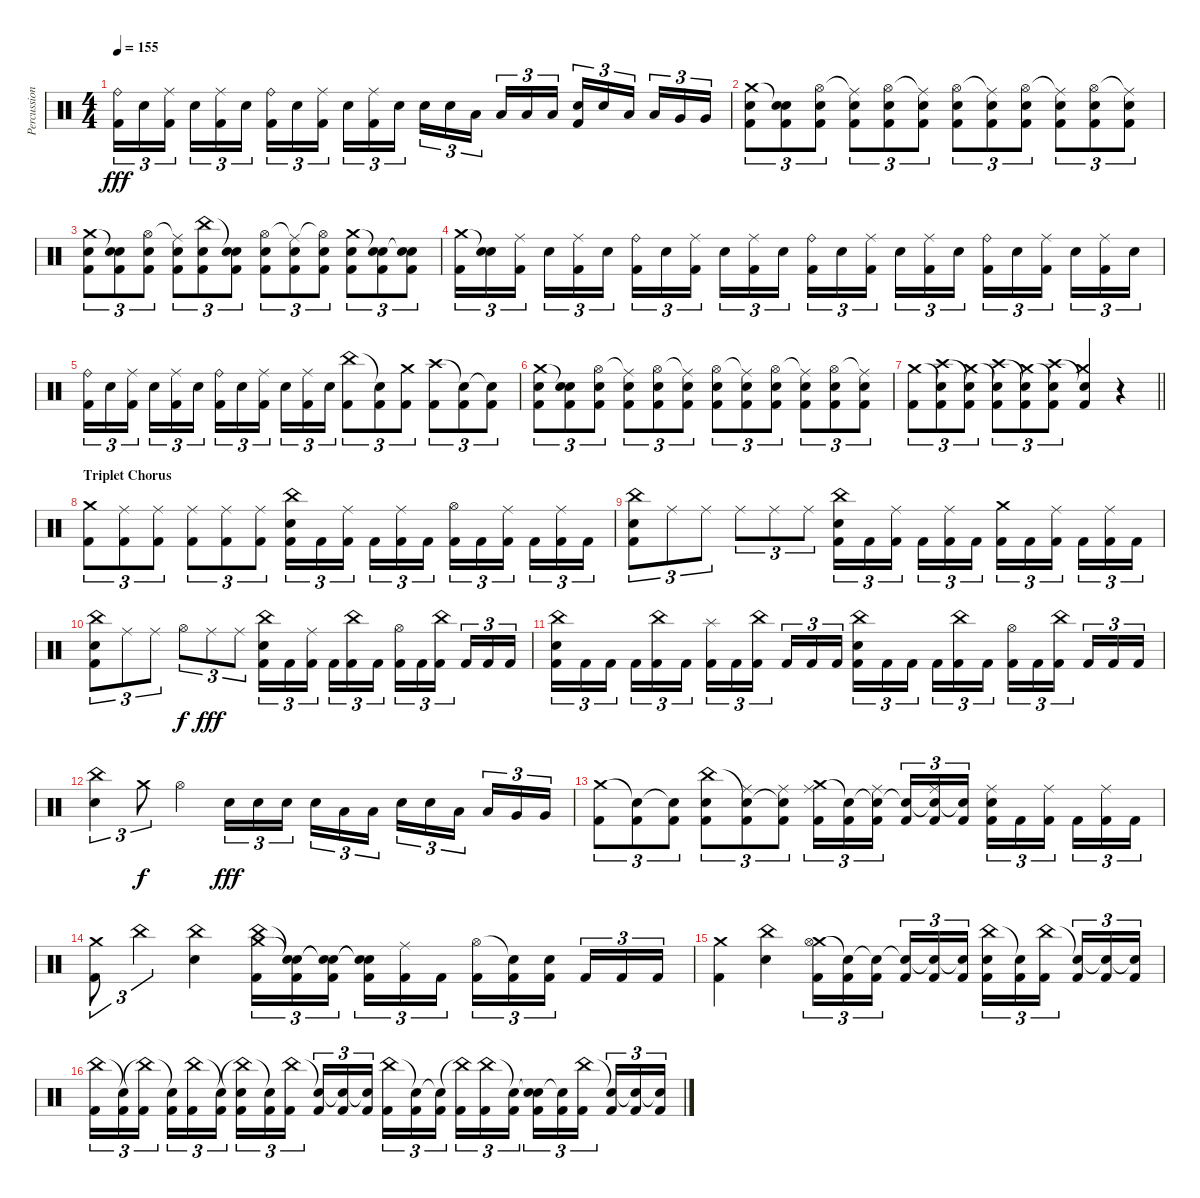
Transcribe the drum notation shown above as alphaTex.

\track ("Percussion" "Percussion") {instrument percussion}
\staff {score}
\articulation defaults
\ts (4 4)
\tempo 155
\clef neutral
\ks c
("Ride (bell)" "Kick (hit) 2").16{tu (3 2) dy fff} "Electric Snare (hit)".16{tu (3 2)} ("Ride (middle)" "Kick (hit) 2").16{tu (3 2) beam splitsecondary} "Electric Snare (hit)".16{tu (3 2)} ("Ride (middle)" "Kick (hit) 2").16{tu (3 2)} "Electric Snare (hit)".16{tu (3 2)} ("Ride (bell)" "Kick (hit) 2").16{tu (3 2)} "Electric Snare (hit)".16{tu (3 2)} ("Ride (middle)" "Kick (hit) 2").16{tu (3 2) beam splitsecondary} "Electric Snare (hit)".16{tu (3 2)} ("Ride (middle)" "Kick (hit) 2").16{tu (3 2)} "Electric Snare (hit)".16{tu (3 2)} "Electric Snare (hit)".16{tu (3 2)} "Electric Snare (hit)".16{tu (3 2)} "Low Tom (hit)".16{tu (3 2) beam splitsecondary} "Low Tom (hit)".16{tu (3 2)} "Low Tom (hit)".16{tu (3 2)} "Low Tom (hit)".16{tu (3 2)} ("Electric Snare (hit)" "Kick (hit) 2").16{tu (3 2)} "Electric Snare (hit)".16{tu (3 2)} "Low Tom (hit)".16{tu (3 2) beam splitsecondary} "Low Tom (hit)".16{tu (3 2)} "Very Low Tom (hit)".16{tu (3 2)} "Very Low Tom (hit)".16{tu (3 2)} |
("Crash medium (hit)" "Electric Snare (hit)" "Kick (hit) 2").8{tu (3 2)} ("Snare (hit)"{t} "Electric Snare (hit)" "Kick (hit) 2").8{tu (3 2)} ("Hi-Hat (open)" "Electric Snare (hit)" "Kick (hit) 2").8{tu (3 2)} ("Ride (middle)"{t} "Electric Snare (hit)" "Kick (hit) 2").8{tu (3 2)} ("Hi-Hat (open)" "Electric Snare (hit)" "Kick (hit) 2").8{tu (3 2)} ("Ride (middle)"{t} "Electric Snare (hit)" "Kick (hit) 2").8{tu (3 2)} ("Hi-Hat (open)" "Electric Snare (hit)" "Kick (hit) 2").8{tu (3 2)} ("Ride (middle)"{t} "Electric Snare (hit)" "Kick (hit) 2").8{tu (3 2)} ("Hi-Hat (open)" "Electric Snare (hit)" "Kick (hit) 2").8{tu (3 2)} ("Ride (middle)"{t} "Electric Snare (hit)" "Kick (hit) 2").8{tu (3 2)} ("Hi-Hat (open)" "Electric Snare (hit)" "Kick (hit) 2").8{tu (3 2)} ("Ride (middle)"{t} "Electric Snare (hit)" "Kick (hit) 2").8{tu (3 2)} |
("Crash medium (hit)" "Electric Snare (hit)" "Kick (hit) 2").8{tu (3 2)} ("Snare (hit)"{t} "Electric Snare (hit)" "Kick (hit) 2").8{tu (3 2)} ("Hi-Hat (open)" "Electric Snare (hit)" "Kick (hit) 2").8{tu (3 2)} ("Ride (middle)"{t} "Electric Snare (hit)" "Kick (hit) 2").8{tu (3 2)} ("China (hit)" "Electric Snare (hit)" "Kick (hit) 2").8{tu (3 2)} ("Snare (hit)"{t} "Electric Snare (hit)" "Kick (hit) 2").8{tu (3 2)} ("Hi-Hat (open)" "Electric Snare (hit)" "Kick (hit) 2").8{tu (3 2)} ("Ride (middle)"{t} "Electric Snare (hit)" "Kick (hit) 2").8{tu (3 2)} ("Hi-Hat (open)"{t} "Electric Snare (hit)" "Kick (hit) 2").8{tu (3 2)} ("Crash medium (hit)" "Electric Snare (hit)" "Kick (hit) 2").8{tu (3 2)} ("Snare (hit)"{t} "Electric Snare (hit)" "Kick (hit) 2").8{tu (3 2)} ("Snare (hit)"{t} "Electric Snare (hit)" "Kick (hit) 2").8{tu (3 2)} |
("Crash medium (hit)" "Kick (hit) 2").16{tu (3 2)} ("Snare (hit)"{t} "Electric Snare (hit)").16{tu (3 2)} ("Ride (middle)" "Kick (hit) 2").16{tu (3 2) beam splitsecondary} "Electric Snare (hit)".16{tu (3 2)} ("Ride (middle)" "Kick (hit) 2").16{tu (3 2)} "Electric Snare (hit)".16{tu (3 2)} ("Ride (bell)" "Kick (hit) 2").16{tu (3 2)} "Electric Snare (hit)".16{tu (3 2)} ("Ride (middle)" "Kick (hit) 2").16{tu (3 2) beam splitsecondary} "Electric Snare (hit)".16{tu (3 2)} ("Ride (middle)" "Kick (hit) 2").16{tu (3 2)} "Electric Snare (hit)".16{tu (3 2)} ("Ride (bell)" "Kick (hit) 2").16{tu (3 2)} "Electric Snare (hit)".16{tu (3 2)} ("Ride (middle)" "Kick (hit) 2").16{tu (3 2) beam splitsecondary} "Electric Snare (hit)".16{tu (3 2)} ("Ride (middle)" "Kick (hit) 2").16{tu (3 2)} "Electric Snare (hit)".16{tu (3 2)} ("Ride (bell)" "Kick (hit) 2").16{tu (3 2)} "Electric Snare (hit)".16{tu (3 2)} ("Ride (middle)" "Kick (hit) 2").16{tu (3 2) beam splitsecondary} "Electric Snare (hit)".16{tu (3 2)} ("Ride (middle)" "Kick (hit) 2").16{tu (3 2)} "Electric Snare (hit)".16{tu (3 2)} |
("Ride (bell)" "Kick (hit) 2").16{tu (3 2)} "Electric Snare (hit)".16{tu (3 2)} ("Ride (middle)" "Kick (hit) 2").16{tu (3 2) beam splitsecondary} "Electric Snare (hit)".16{tu (3 2)} ("Ride (middle)" "Kick (hit) 2").16{tu (3 2)} "Electric Snare (hit)".16{tu (3 2)} ("Ride (bell)" "Kick (hit) 2").16{tu (3 2)} "Electric Snare (hit)".16{tu (3 2)} ("Ride (middle)" "Kick (hit) 2").16{tu (3 2) beam splitsecondary} "Electric Snare (hit)".16{tu (3 2)} ("Ride (middle)" "Kick (hit) 2").16{tu (3 2)} "Electric Snare (hit)".16{tu (3 2)} ("China (hit)" "Kick (hit) 2").8{tu (3 2)} ("Snare (hit)"{t} "Kick (hit) 2").8{tu (3 2)} ("Crash medium (hit)" "Kick (hit) 2").8{tu (3 2)} ("Crash high (hit)" "Kick (hit) 2").8{tu (3 2)} ("Snare (hit)"{t} "Kick (hit) 2").8{tu (3 2)} ("Snare (hit)"{t} "Kick (hit) 2").8{tu (3 2)} |
("Crash medium (hit)" "Electric Snare (hit)" "Kick (hit) 2").8{tu (3 2)} ("Snare (hit)"{t} "Electric Snare (hit)" "Kick (hit) 2").8{tu (3 2)} ("Hi-Hat (open)" "Electric Snare (hit)" "Kick (hit) 2").8{tu (3 2)} ("Ride (middle)"{t} "Electric Snare (hit)" "Kick (hit) 2").8{tu (3 2)} ("Hi-Hat (open)" "Electric Snare (hit)" "Kick (hit) 2").8{tu (3 2)} ("Ride (middle)"{t} "Electric Snare (hit)" "Kick (hit) 2").8{tu (3 2)} ("Hi-Hat (open)" "Electric Snare (hit)" "Kick (hit) 2").8{tu (3 2)} ("Ride (middle)"{t} "Electric Snare (hit)" "Kick (hit) 2").8{tu (3 2)} ("Hi-Hat (open)" "Electric Snare (hit)" "Kick (hit) 2").8{tu (3 2)} ("Ride (middle)"{t} "Electric Snare (hit)" "Kick (hit) 2").8{tu (3 2)} ("Hi-Hat (open)" "Electric Snare (hit)" "Kick (hit) 2").8{tu (3 2)} ("Ride (middle)"{t} "Electric Snare (hit)" "Kick (hit) 2").8{tu (3 2)} |
\barLineRight lightlight
("Crash medium (hit)" "Kick (hit) 2").8{tu (3 2)} ("Snare (hit)"{t} "Crash high (hit)" "Kick (hit) 2").8{tu (3 2)} ("Crash medium (hit)" "Snare (hit)"{t} "Kick (hit) 2").8{tu (3 2)} ("Snare (hit)"{t} "Crash high (hit)" "Kick (hit) 2").8{tu (3 2)} ("Crash medium (hit)" "Snare (hit)"{t} "Kick (hit) 2").8{tu (3 2)} ("Snare (hit)"{t} "Crash high (hit)" "Kick (hit) 2").8{tu (3 2)} ("Crash medium (hit)" "Snare (hit)"{t} "Kick (hit) 2").4 r.4 |
\section ("" "Triplet Chorus")
("Crash medium (hit)" "Kick (hit) 2").8{tu (3 2)} ("Ride (middle)" "Kick (hit) 2").8{tu (3 2)} ("Ride (middle)" "Kick (hit) 2").8{tu (3 2)} ("Ride (middle)" "Kick (hit) 2").8{tu (3 2)} ("Ride (middle)" "Kick (hit) 2").8{tu (3 2)} ("Ride (middle)" "Kick (hit) 2").8{tu (3 2)} ("China (hit)" "Electric Snare (hit)" "Kick (hit) 2").16{tu (3 2)} "Kick (hit) 2".16{tu (3 2)} ("Ride (middle)" "Kick (hit) 2").16{tu (3 2) beam splitsecondary} "Kick (hit) 2".16{tu (3 2)} ("Ride (middle)" "Kick (hit) 2").16{tu (3 2)} "Kick (hit) 2".16{tu (3 2)} ("Hi-Hat (open)" "Kick (hit) 2").16{tu (3 2)} "Kick (hit) 2".16{tu (3 2)} ("Ride (middle)" "Kick (hit) 2").16{tu (3 2) beam splitsecondary} "Kick (hit) 2".16{tu (3 2)} ("Ride (middle)" "Kick (hit) 2").16{tu (3 2)} "Kick (hit) 2".16{tu (3 2)} |
("China (hit)" "Electric Snare (hit)" "Kick (hit) 2").8{tu (3 2)} "Ride (middle)".8{tu (3 2)} "Ride (middle)".8{tu (3 2)} "Ride (middle)".8{tu (3 2)} "Ride (middle)".8{tu (3 2)} "Ride (middle)".8{tu (3 2)} ("China (hit)" "Electric Snare (hit)" "Kick (hit) 2").16{tu (3 2)} "Kick (hit) 2".16{tu (3 2)} ("Ride (middle)" "Kick (hit) 2").16{tu (3 2) beam splitsecondary} "Kick (hit) 2".16{tu (3 2)} ("Ride (middle)" "Kick (hit) 2").16{tu (3 2)} "Kick (hit) 2".16{tu (3 2)} ("Crash medium (hit)" "Kick (hit) 2").16{tu (3 2)} "Kick (hit) 2".16{tu (3 2)} ("Ride (middle)" "Kick (hit) 2").16{tu (3 2) beam splitsecondary} "Kick (hit) 2".16{tu (3 2)} ("Ride (middle)" "Kick (hit) 2").16{tu (3 2)} "Kick (hit) 2".16{tu (3 2)} |
("China (hit)" "Electric Snare (hit)" "Kick (hit) 2").8{tu (3 2)} "Ride (middle)".8{tu (3 2)} "Ride (middle)".8{tu (3 2)} "Hi-Hat (open)".8{tu (3 2) dy f} "Ride (middle)".8{tu (3 2) dy fff} "Ride (middle)".8{tu (3 2)} ("China (hit)" "Electric Snare (hit)" "Kick (hit) 2").16{tu (3 2)} "Kick (hit) 2".16{tu (3 2)} ("Ride (middle)" "Kick (hit) 2").16{tu (3 2) beam splitsecondary} "Kick (hit) 2".16{tu (3 2)} ("China (hit)" "Kick (hit) 2").16{tu (3 2)} "Kick (hit) 2".16{tu (3 2)} ("Hi-Hat (open)" "Kick (hit) 2").16{tu (3 2)} "Kick (hit) 2".16{tu (3 2)} ("China (hit)" "Kick (hit) 2").16{tu (3 2) beam splitsecondary} "Kick (hit) 2".16{tu (3 2)} "Kick (hit) 2".16{tu (3 2)} "Kick (hit) 2".16{tu (3 2)} |
("China (hit)" "Electric Snare (hit)" "Kick (hit) 2").16{tu (3 2)} "Kick (hit) 2".16{tu (3 2)} "Kick (hit) 2".16{tu (3 2) beam splitsecondary} "Kick (hit) 2".16{tu (3 2)} ("China (hit)" "Kick (hit) 2").16{tu (3 2)} "Kick (hit) 2".16{tu (3 2)} ("Splash (hit)" "Kick (hit) 2").16{tu (3 2)} "Kick (hit) 2".16{tu (3 2)} ("China (hit)" "Kick (hit) 2").16{tu (3 2) beam splitsecondary} "Kick (hit) 2".16{tu (3 2)} "Kick (hit) 2".16{tu (3 2)} "Kick (hit) 2".16{tu (3 2)} ("China (hit)" "Electric Snare (hit)" "Kick (hit) 2").16{tu (3 2)} "Kick (hit) 2".16{tu (3 2)} "Kick (hit) 2".16{tu (3 2) beam splitsecondary} "Kick (hit) 2".16{tu (3 2)} ("China (hit)" "Kick (hit) 2").16{tu (3 2)} "Kick (hit) 2".16{tu (3 2)} ("Hi-Hat (open)" "Kick (hit) 2").16{tu (3 2)} "Kick (hit) 2".16{tu (3 2)} ("China (hit)" "Kick (hit) 2").16{tu (3 2) beam splitsecondary} "Kick (hit) 2".16{tu (3 2)} "Kick (hit) 2".16{tu (3 2)} "Kick (hit) 2".16{tu (3 2)} |
("China (hit)" "Electric Snare (hit)").4{tu (3 2)} "Crash medium (hit)".8{tu (3 2) dy f} "Hi-Hat (open)".4 "Electric Snare (hit)".16{tu (3 2) dy fff} "Electric Snare (hit)".16{tu (3 2)} "Electric Snare (hit)".16{tu (3 2) beam splitsecondary} "Electric Snare (hit)".16{tu (3 2)} "Low Tom (hit)".16{tu (3 2)} "Low Tom (hit)".16{tu (3 2)} "Electric Snare (hit)".16{tu (3 2)} "Electric Snare (hit)".16{tu (3 2)} "Low Tom (hit)".16{tu (3 2) beam splitsecondary} "Low Tom (hit)".16{tu (3 2)} "Very Low Tom (hit)".16{tu (3 2)} "Very Low Tom (hit)".16{tu (3 2)} |
("Crash medium (hit)" "Kick (hit) 2").8{tu (3 2)} ("Snare (hit)"{t} "Kick (hit) 2").8{tu (3 2)} ("Snare (hit)"{t} "Kick (hit) 2").8{tu (3 2)} ("China (hit)" "Electric Snare (hit)" "Kick (hit) 2").8{tu (3 2)} ("Snare (hit)"{t} "Ride (middle)" "Kick (hit) 2").8{tu (3 2)} ("Snare (hit)"{t} "Ride (middle)" "Kick (hit) 2").8{tu (3 2)} ("Crash medium (hit)" "Ride (middle)" "Kick (hit) 2").16{tu (3 2)} ("Snare (hit)"{t} "Kick (hit) 2").16{tu (3 2)} ("Snare (hit)"{t} "Ride (middle)" "Kick (hit) 2").16{tu (3 2) beam splitsecondary} ("Snare (hit)"{t} "Kick (hit) 2").16{tu (3 2)} ("Snare (hit)"{t} "Ride (middle)" "Kick (hit) 2").16{tu (3 2)} ("Snare (hit)"{t} "Kick (hit) 2").16{tu (3 2)} ("Ride (middle)" "Electric Snare (hit)" "Kick (hit) 2").16{tu (3 2)} "Kick (hit) 2".16{tu (3 2)} ("Ride (middle)" "Kick (hit) 2").16{tu (3 2) beam splitsecondary} "Kick (hit) 2".16{tu (3 2)} ("Ride (middle)" "Kick (hit) 2").16{tu (3 2)} "Kick (hit) 2".16{tu (3 2)} |
("Crash medium (hit)" "Kick (hit) 2").8{tu (3 2)} "China (hit)".4{tu (3 2)} ("China (hit)" "Electric Snare (hit)").4 ("Crash medium (hit)" "China (hit)" "Kick (hit) 2").16{tu (3 2)} ("Snare (hit)"{t} "Snare (hit)"{t} "Kick (hit) 2").16{tu (3 2)} ("Snare (hit)"{t} "Snare (hit)"{t} "Kick (hit) 2").16{tu (3 2) beam splitsecondary} ("Snare (hit)"{t} "Snare (hit)"{t} "Kick (hit) 2").16{tu (3 2)} ("Ride (middle)" "Kick (hit) 2").16{tu (3 2)} "Kick (hit) 2".16{tu (3 2)} ("Hi-Hat (open)" "Kick (hit) 2").16{tu (3 2)} ("Snare (hit)"{t} "Kick (hit) 2").16{tu (3 2)} ("Electric Snare (hit)" "Kick (hit) 2").16{tu (3 2) beam splitsecondary} "Kick (hit) 2".16{tu (3 2)} "Kick (hit) 2".16{tu (3 2)} "Kick (hit) 2".16{tu (3 2)} |
("Crash medium (hit)" "Kick (hit) 2").4 ("China (hit)" "Electric Snare (hit)").4 ("Crash medium (hit)" "Hi-Hat (open)" "Kick (hit) 2").16{tu (3 2)} ("Snare (hit)"{t} "Kick (hit) 2").16{tu (3 2)} ("Snare (hit)"{t} "Kick (hit) 2").16{tu (3 2) beam splitsecondary} ("Snare (hit)"{t} "Kick (hit) 2").16{tu (3 2)} ("Snare (hit)"{t} "Kick (hit) 2").16{tu (3 2)} ("Snare (hit)"{t} "Kick (hit) 2").16{tu (3 2)} ("China (hit)" "Electric Snare (hit)" "Kick (hit) 2").16{tu (3 2)} ("Snare (hit)"{t} "Kick (hit) 2").16{tu (3 2)} ("China (hit)" "Kick (hit) 2").16{tu (3 2) beam splitsecondary} ("Snare (hit)"{t} "Kick (hit) 2").16{tu (3 2)} ("Snare (hit)"{t} "Kick (hit) 2").16{tu (3 2)} ("Snare (hit)"{t} "Kick (hit) 2").16{tu (3 2)} |
("China (hit)" "Kick (hit) 2").16{tu (3 2)} ("Snare (hit)"{t} "Kick (hit) 2").16{tu (3 2)} ("China (hit)"{t} "Kick (hit) 2").16{tu (3 2) beam splitsecondary} ("Snare (hit)"{t} "Kick (hit) 2").16{tu (3 2)} ("China (hit)" "Kick (hit) 2").16{tu (3 2)} ("Snare (hit)"{t} "Kick (hit) 2").16{tu (3 2)} ("China (hit)"{t} "Electric Snare (hit)" "Kick (hit) 2").16{tu (3 2)} ("Snare (hit)"{t} "Kick (hit) 2").16{tu (3 2)} ("China (hit)" "Kick (hit) 2").16{tu (3 2) beam splitsecondary} ("Snare (hit)"{t} "Kick (hit) 2").16{tu (3 2)} ("Snare (hit)"{t} "Kick (hit) 2").16{tu (3 2)} ("Snare (hit)"{t} "Kick (hit) 2").16{tu (3 2)} ("China (hit)" "Kick (hit) 2").16{tu (3 2)} ("Snare (hit)"{t} "Kick (hit) 2").16{tu (3 2)} ("Snare (hit)"{t} "Kick (hit) 2").16{tu (3 2) beam splitsecondary} ("China (hit)"{t} "Kick (hit) 2").16{tu (3 2)} ("China (hit)" "Kick (hit) 2").16{tu (3 2)} ("Snare (hit)"{t} "Kick (hit) 2").16{tu (3 2)} ("Snare (hit)"{t} "Electric Snare (hit)" "Kick (hit) 2").16{tu (3 2)} ("Snare (hit)"{t} "Kick (hit) 2").16{tu (3 2)} ("China (hit)" "Kick (hit) 2").16{tu (3 2) beam splitsecondary} ("Snare (hit)"{t} "Kick (hit) 2").16{tu (3 2)} ("Snare (hit)"{t} "Kick (hit) 2").16{tu (3 2)} ("Snare (hit)"{t} "Kick (hit) 2").16{tu (3 2)}
